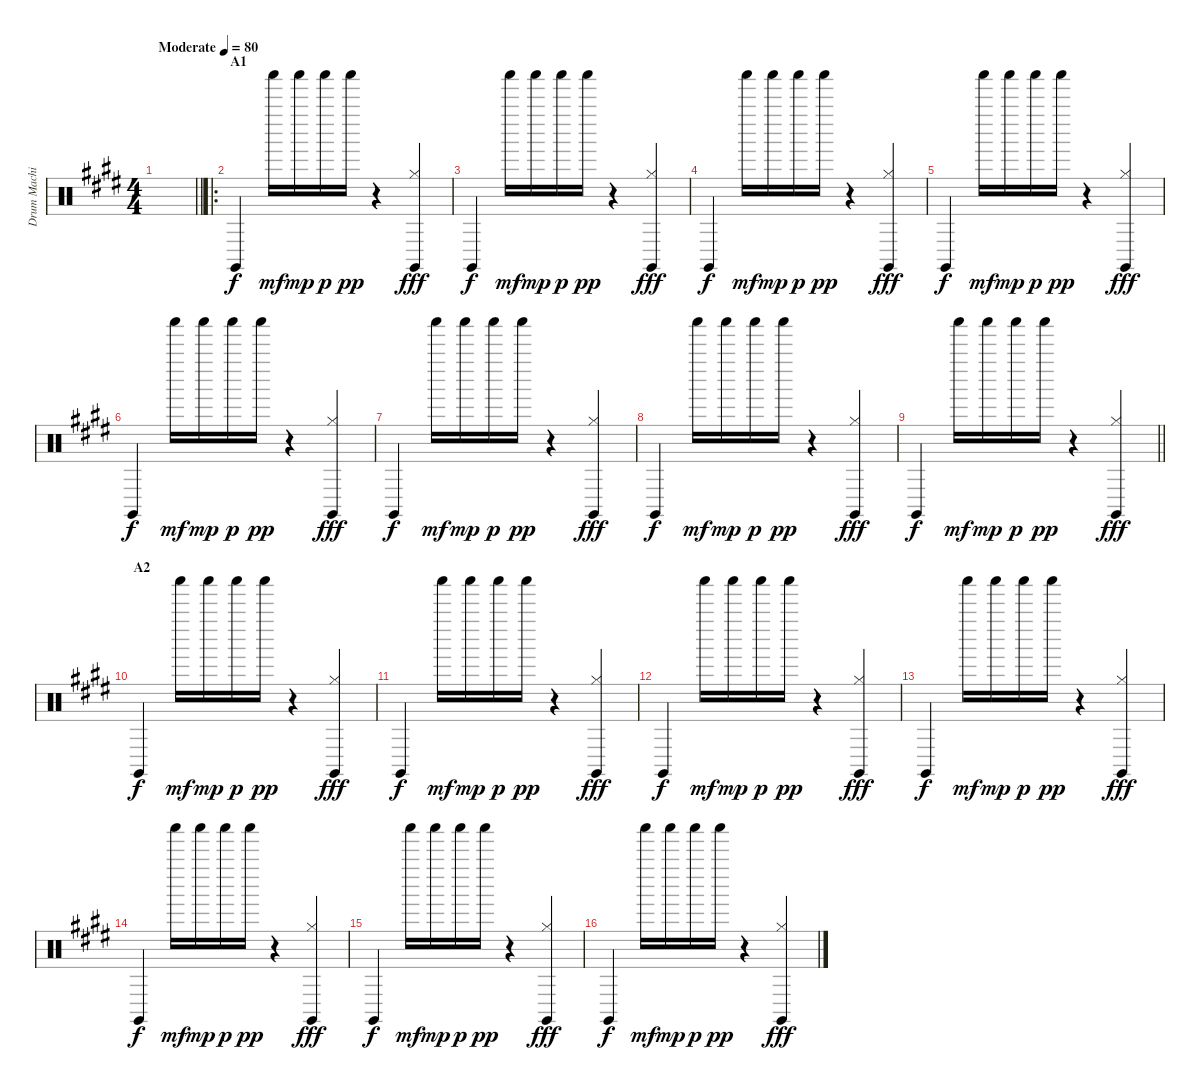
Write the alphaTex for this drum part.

\track ("Drum Machine" "Drum Machi") {instrument percussion}
\staff {score}
\articulation defaults
\ts (4 4)
\tempo (80 "Moderate")
\clef neutral
\barLineRight lightlight
\ks e
|
\ro
\section ("" "A1")
"Claves (hit)".4 "Shaker (hit)".16{dy mf} "Shaker (hit)".16{dy mp} "Shaker (hit)".16{dy p} "Shaker (hit)".16{dy pp} r.4 ("Hi-Hat (closed)" "Claves (hit)").4{dy fff} |
"Claves (hit)".4{dy f} "Shaker (hit)".16{dy mf} "Shaker (hit)".16{dy mp} "Shaker (hit)".16{dy p} "Shaker (hit)".16{dy pp} r.4 ("Hi-Hat (closed)" "Claves (hit)").4{dy fff} |
"Claves (hit)".4{dy f} "Shaker (hit)".16{dy mf} "Shaker (hit)".16{dy mp} "Shaker (hit)".16{dy p} "Shaker (hit)".16{dy pp} r.4 ("Hi-Hat (closed)" "Claves (hit)").4{dy fff} |
"Claves (hit)".4{dy f} "Shaker (hit)".16{dy mf} "Shaker (hit)".16{dy mp} "Shaker (hit)".16{dy p} "Shaker (hit)".16{dy pp} r.4 ("Hi-Hat (closed)" "Claves (hit)").4{dy fff} |
"Claves (hit)".4{dy f} "Shaker (hit)".16{dy mf} "Shaker (hit)".16{dy mp} "Shaker (hit)".16{dy p} "Shaker (hit)".16{dy pp} r.4 ("Hi-Hat (closed)" "Claves (hit)").4{dy fff} |
"Claves (hit)".4{dy f} "Shaker (hit)".16{dy mf} "Shaker (hit)".16{dy mp} "Shaker (hit)".16{dy p} "Shaker (hit)".16{dy pp} r.4 ("Hi-Hat (closed)" "Claves (hit)").4{dy fff} |
"Claves (hit)".4{dy f} "Shaker (hit)".16{dy mf} "Shaker (hit)".16{dy mp} "Shaker (hit)".16{dy p} "Shaker (hit)".16{dy pp} r.4 ("Hi-Hat (closed)" "Claves (hit)").4{dy fff} |
\barLineRight lightlight "Claves (hit)".4{dy f} "Shaker (hit)".16{dy mf} "Shaker (hit)".16{dy mp} "Shaker (hit)".16{dy p} "Shaker (hit)".16{dy pp}
r.4 ("Hi-Hat (closed)" "Claves (hit)").4{dy fff} |
\section ("" "A2")
"Claves (hit)".4{dy f} "Shaker (hit)".16{dy mf} "Shaker (hit)".16{dy mp} "Shaker (hit)".16{dy p} "Shaker (hit)".16{dy pp} r.4 ("Hi-Hat (closed)" "Claves (hit)").4{dy fff} |
"Claves (hit)".4{dy f} "Shaker (hit)".16{dy mf} "Shaker (hit)".16{dy mp} "Shaker (hit)".16{dy p} "Shaker (hit)".16{dy pp} r.4 ("Hi-Hat (closed)" "Claves (hit)").4{dy fff} |
"Claves (hit)".4{dy f} "Shaker (hit)".16{dy mf} "Shaker (hit)".16{dy mp} "Shaker (hit)".16{dy p} "Shaker (hit)".16{dy pp} r.4 ("Hi-Hat (closed)" "Claves (hit)").4{dy fff} |
"Claves (hit)".4{dy f} "Shaker (hit)".16{dy mf} "Shaker (hit)".16{dy mp} "Shaker (hit)".16{dy p} "Shaker (hit)".16{dy pp} r.4 ("Hi-Hat (closed)" "Claves (hit)").4{dy fff} |
"Claves (hit)".4{dy f} "Shaker (hit)".16{dy mf} "Shaker (hit)".16{dy mp} "Shaker (hit)".16{dy p} "Shaker (hit)".16{dy pp} r.4 ("Hi-Hat (closed)" "Claves (hit)").4{dy fff} |
"Claves (hit)".4{dy f} "Shaker (hit)".16{dy mf} "Shaker (hit)".16{dy mp} "Shaker (hit)".16{dy p} "Shaker (hit)".16{dy pp} r.4 ("Hi-Hat (closed)" "Claves (hit)").4{dy fff} |
"Claves (hit)".4{dy f} "Shaker (hit)".16{dy mf} "Shaker (hit)".16{dy mp} "Shaker (hit)".16{dy p} "Shaker (hit)".16{dy pp} r.4 ("Hi-Hat (closed)" "Claves (hit)").4{dy fff}
